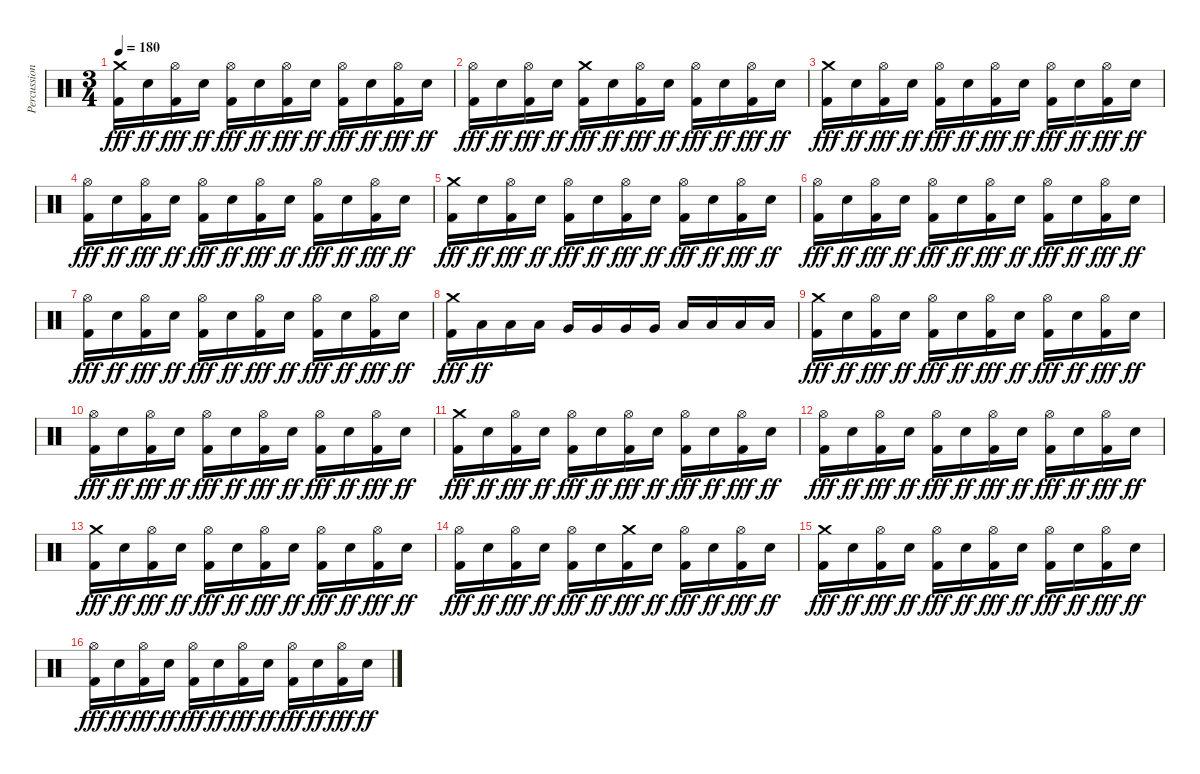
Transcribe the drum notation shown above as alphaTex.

\track ("Percussion" "Percussion") {instrument percussion}
\staff {score}
\articulation defaults
\ts (3 4)
\tempo 180
\clef neutral
\ks c
("Crash medium (hit)" "Kick (hit) 2").16{dy fff} "Electric Snare (hit)".16{dy ff} ("Hi-Hat (open)" "Kick (hit) 2").16{dy fff} "Electric Snare (hit)".16{dy ff} ("Hi-Hat (open)" "Kick (hit) 2").16{dy fff} "Electric Snare (hit)".16{dy ff} ("Hi-Hat (open)" "Kick (hit) 2").16{dy fff} "Electric Snare (hit)".16{dy ff} ("Hi-Hat (open)" "Kick (hit) 2").16{dy fff} "Electric Snare (hit)".16{dy ff} ("Hi-Hat (open)" "Kick (hit) 2").16{dy fff} "Electric Snare (hit)".16{dy ff} |
("Hi-Hat (open)" "Kick (hit) 2").16{dy fff} "Electric Snare (hit)".16{dy ff} ("Hi-Hat (open)" "Kick (hit) 2").16{dy fff} "Electric Snare (hit)".16{dy ff} ("Crash medium (hit)" "Kick (hit) 2").16{dy fff} "Electric Snare (hit)".16{dy ff} ("Hi-Hat (open)" "Kick (hit) 2").16{dy fff} "Electric Snare (hit)".16{dy ff} ("Hi-Hat (open)" "Kick (hit) 2").16{dy fff} "Electric Snare (hit)".16{dy ff} ("Hi-Hat (open)" "Kick (hit) 2").16{dy fff} "Electric Snare (hit)".16{dy ff} |
("Crash medium (hit)" "Kick (hit) 2").16{dy fff} "Electric Snare (hit)".16{dy ff} ("Hi-Hat (open)" "Kick (hit) 2").16{dy fff} "Electric Snare (hit)".16{dy ff} ("Hi-Hat (open)" "Kick (hit) 2").16{dy fff} "Electric Snare (hit)".16{dy ff} ("Hi-Hat (open)" "Kick (hit) 2").16{dy fff} "Electric Snare (hit)".16{dy ff} ("Hi-Hat (open)" "Kick (hit) 2").16{dy fff} "Electric Snare (hit)".16{dy ff} ("Hi-Hat (open)" "Kick (hit) 2").16{dy fff} "Electric Snare (hit)".16{dy ff} |
("Hi-Hat (open)" "Kick (hit) 2").16{dy fff} "Electric Snare (hit)".16{dy ff} ("Hi-Hat (open)" "Kick (hit) 2").16{dy fff} "Electric Snare (hit)".16{dy ff} ("Hi-Hat (open)" "Kick (hit) 2").16{dy fff} "Electric Snare (hit)".16{dy ff} ("Hi-Hat (open)" "Kick (hit) 2").16{dy fff} "Electric Snare (hit)".16{dy ff} ("Hi-Hat (open)" "Kick (hit) 2").16{dy fff} "Electric Snare (hit)".16{dy ff} ("Hi-Hat (open)" "Kick (hit) 2").16{dy fff} "Electric Snare (hit)".16{dy ff} |
("Crash medium (hit)" "Kick (hit) 2").16{dy fff} "Electric Snare (hit)".16{dy ff} ("Hi-Hat (open)" "Kick (hit) 2").16{dy fff} "Electric Snare (hit)".16{dy ff} ("Hi-Hat (open)" "Kick (hit) 2").16{dy fff} "Electric Snare (hit)".16{dy ff} ("Hi-Hat (open)" "Kick (hit) 2").16{dy fff} "Electric Snare (hit)".16{dy ff} ("Hi-Hat (open)" "Kick (hit) 2").16{dy fff} "Electric Snare (hit)".16{dy ff} ("Hi-Hat (open)" "Kick (hit) 2").16{dy fff} "Electric Snare (hit)".16{dy ff} |
("Hi-Hat (open)" "Kick (hit) 2").16{dy fff} "Electric Snare (hit)".16{dy ff} ("Hi-Hat (open)" "Kick (hit) 2").16{dy fff} "Electric Snare (hit)".16{dy ff} ("Hi-Hat (open)" "Kick (hit) 2").16{dy fff} "Electric Snare (hit)".16{dy ff} ("Hi-Hat (open)" "Kick (hit) 2").16{dy fff} "Electric Snare (hit)".16{dy ff} ("Hi-Hat (open)" "Kick (hit) 2").16{dy fff} "Electric Snare (hit)".16{dy ff} ("Hi-Hat (open)" "Kick (hit) 2").16{dy fff} "Electric Snare (hit)".16{dy ff} |
("Hi-Hat (open)" "Kick (hit) 2").16{dy fff} "Electric Snare (hit)".16{dy ff} ("Hi-Hat (open)" "Kick (hit) 2").16{dy fff} "Electric Snare (hit)".16{dy ff} ("Hi-Hat (open)" "Kick (hit) 2").16{dy fff} "Electric Snare (hit)".16{dy ff} ("Hi-Hat (open)" "Kick (hit) 2").16{dy fff} "Electric Snare (hit)".16{dy ff} ("Hi-Hat (open)" "Kick (hit) 2").16{dy fff} "Electric Snare (hit)".16{dy ff} ("Hi-Hat (open)" "Kick (hit) 2").16{dy fff} "Electric Snare (hit)".16{dy ff} |
("Crash medium (hit)" "Kick (hit) 2").16{dy fff} "Low Tom (hit)".16{dy ff} "Low Tom (hit)".16 "Low Tom (hit)".16 "Very Low Tom (hit)".16 "Very Low Tom (hit)".16 "Very Low Tom (hit)".16 "Very Low Tom (hit)".16 "Low Floor Tom (hit)".16 "Low Floor Tom (hit)".16 "Low Floor Tom (hit)".16 "Low Floor Tom (hit)".16 |
("Crash medium (hit)" "Kick (hit) 2").16{dy fff} "Electric Snare (hit)".16{dy ff} ("Hi-Hat (open)" "Kick (hit) 2").16{dy fff} "Electric Snare (hit)".16{dy ff} ("Hi-Hat (open)" "Kick (hit) 2").16{dy fff} "Electric Snare (hit)".16{dy ff} ("Hi-Hat (open)" "Kick (hit) 2").16{dy fff} "Electric Snare (hit)".16{dy ff} ("Hi-Hat (open)" "Kick (hit) 2").16{dy fff} "Electric Snare (hit)".16{dy ff} ("Hi-Hat (open)" "Kick (hit) 2").16{dy fff} "Electric Snare (hit)".16{dy ff} |
("Hi-Hat (open)" "Kick (hit) 2").16{dy fff} "Electric Snare (hit)".16{dy ff} ("Hi-Hat (open)" "Kick (hit) 2").16{dy fff} "Electric Snare (hit)".16{dy ff} ("Hi-Hat (open)" "Kick (hit) 2").16{dy fff} "Electric Snare (hit)".16{dy ff} ("Hi-Hat (open)" "Kick (hit) 2").16{dy fff} "Electric Snare (hit)".16{dy ff} ("Hi-Hat (open)" "Kick (hit) 2").16{dy fff} "Electric Snare (hit)".16{dy ff} ("Hi-Hat (open)" "Kick (hit) 2").16{dy fff} "Electric Snare (hit)".16{dy ff} |
("Crash medium (hit)" "Kick (hit) 2").16{dy fff} "Electric Snare (hit)".16{dy ff} ("Hi-Hat (open)" "Kick (hit) 2").16{dy fff} "Electric Snare (hit)".16{dy ff} ("Hi-Hat (open)" "Kick (hit) 2").16{dy fff} "Electric Snare (hit)".16{dy ff} ("Hi-Hat (open)" "Kick (hit) 2").16{dy fff} "Electric Snare (hit)".16{dy ff} ("Hi-Hat (open)" "Kick (hit) 2").16{dy fff} "Electric Snare (hit)".16{dy ff} ("Hi-Hat (open)" "Kick (hit) 2").16{dy fff} "Electric Snare (hit)".16{dy ff} |
("Hi-Hat (open)" "Kick (hit) 2").16{dy fff} "Electric Snare (hit)".16{dy ff} ("Hi-Hat (open)" "Kick (hit) 2").16{dy fff} "Electric Snare (hit)".16{dy ff} ("Hi-Hat (open)" "Kick (hit) 2").16{dy fff} "Electric Snare (hit)".16{dy ff} ("Hi-Hat (open)" "Kick (hit) 2").16{dy fff} "Electric Snare (hit)".16{dy ff} ("Hi-Hat (open)" "Kick (hit) 2").16{dy fff} "Electric Snare (hit)".16{dy ff} ("Hi-Hat (open)" "Kick (hit) 2").16{dy fff} "Electric Snare (hit)".16{dy ff} |
("Crash medium (hit)" "Kick (hit) 2").16{dy fff} "Electric Snare (hit)".16{dy ff} ("Hi-Hat (open)" "Kick (hit) 2").16{dy fff} "Electric Snare (hit)".16{dy ff} ("Hi-Hat (open)" "Kick (hit) 2").16{dy fff} "Electric Snare (hit)".16{dy ff} ("Hi-Hat (open)" "Kick (hit) 2").16{dy fff} "Electric Snare (hit)".16{dy ff} ("Hi-Hat (open)" "Kick (hit) 2").16{dy fff} "Electric Snare (hit)".16{dy ff} ("Hi-Hat (open)" "Kick (hit) 2").16{dy fff} "Electric Snare (hit)".16{dy ff} |
("Hi-Hat (open)" "Kick (hit) 2").16{dy fff} "Electric Snare (hit)".16{dy ff} ("Hi-Hat (open)" "Kick (hit) 2").16{dy fff} "Electric Snare (hit)".16{dy ff} ("Hi-Hat (open)" "Kick (hit) 2").16{dy fff} "Electric Snare (hit)".16{dy ff} ("Crash medium (hit)" "Kick (hit) 2").16{dy fff} "Electric Snare (hit)".16{dy ff} ("Hi-Hat (open)" "Kick (hit) 2").16{dy fff} "Electric Snare (hit)".16{dy ff} ("Hi-Hat (open)" "Kick (hit) 2").16{dy fff} "Electric Snare (hit)".16{dy ff} |
("Crash medium (hit)" "Kick (hit) 2").16{dy fff} "Electric Snare (hit)".16{dy ff} ("Hi-Hat (open)" "Kick (hit) 2").16{dy fff} "Electric Snare (hit)".16{dy ff} ("Hi-Hat (open)" "Kick (hit) 2").16{dy fff} "Electric Snare (hit)".16{dy ff} ("Hi-Hat (open)" "Kick (hit) 2").16{dy fff} "Electric Snare (hit)".16{dy ff} ("Hi-Hat (open)" "Kick (hit) 2").16{dy fff} "Electric Snare (hit)".16{dy ff} ("Hi-Hat (open)" "Kick (hit) 2").16{dy fff} "Electric Snare (hit)".16{dy ff} |
("Hi-Hat (open)" "Kick (hit) 2").16{dy fff} "Electric Snare (hit)".16{dy ff} ("Hi-Hat (open)" "Kick (hit) 2").16{dy fff} "Electric Snare (hit)".16{dy ff} ("Hi-Hat (open)" "Kick (hit) 2").16{dy fff} "Electric Snare (hit)".16{dy ff} ("Hi-Hat (open)" "Kick (hit) 2").16{dy fff} "Electric Snare (hit)".16{dy ff} ("Hi-Hat (open)" "Kick (hit) 2").16{dy fff} "Electric Snare (hit)".16{dy ff} ("Hi-Hat (open)" "Kick (hit) 2").16{dy fff} "Electric Snare (hit)".16{dy ff}
